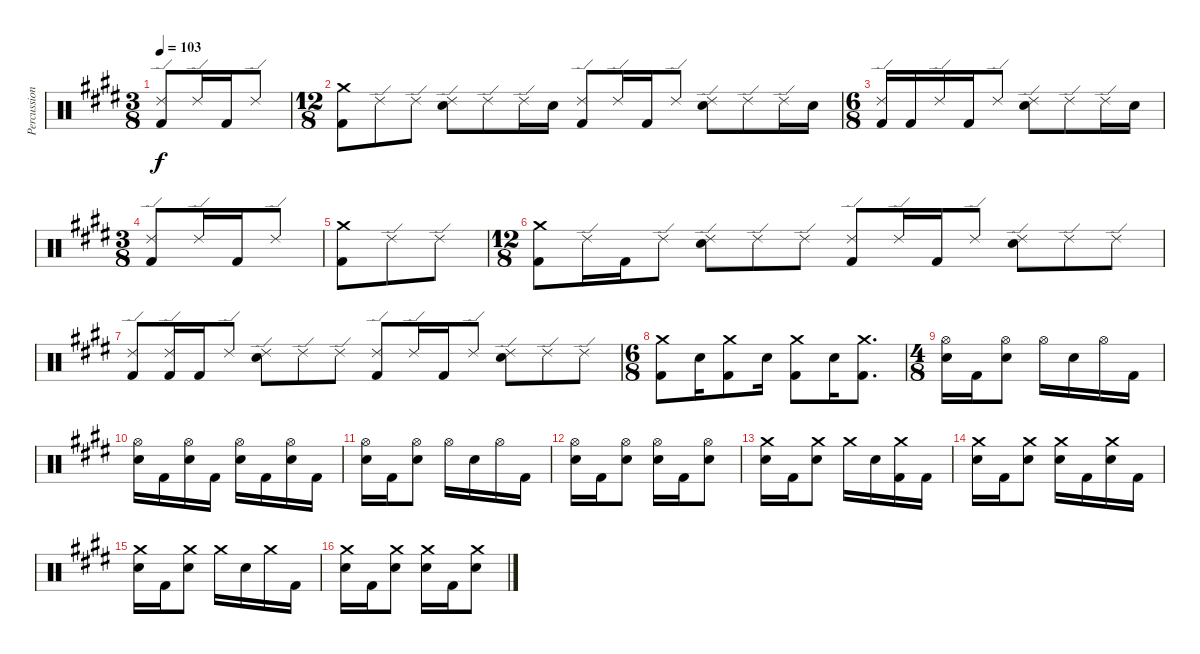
\track ("Percussion" "Percussion") {instrument percussion}
\staff {score}
\articulation defaults
\ts (3 8)
\tempo 103
\clef neutral
\ks c#minor
("Ride (edge) 2" "Kick (hit) 2").8{dy f} "Ride (edge) 2".16 "Kick (hit) 2".16 "Ride (edge) 2".8 |
\ts (12 8)
("Crash medium (hit)" "Kick (hit) 2").8 "Ride (edge) 2".8 "Ride (edge) 2".8 ("Ride (edge) 2" "Electric Snare (hit)").8 "Ride (edge) 2".8 "Ride (edge) 2".16 "Electric Snare (hit)".16 ("Ride (edge) 2" "Kick (hit) 2").8 "Ride (edge) 2".16 "Kick (hit) 2".16 "Ride (edge) 2".8 ("Ride (edge) 2" "Electric Snare (hit)").8 "Ride (edge) 2".8 "Ride (edge) 2".16 "Electric Snare (hit)".16 |
\ts (6 8)
\ks e
("Ride (edge) 2" "Kick (hit) 2").16 "Kick (hit) 2".16 "Ride (edge) 2".16 "Kick (hit) 2".16 "Ride (edge) 2".8 ("Ride (edge) 2" "Electric Snare (hit)").8 "Ride (edge) 2".8 "Ride (edge) 2".16 "Electric Snare (hit)".16 |
\ts (3 8)
\ks c#minor
("Ride (edge) 2" "Kick (hit) 2").8{beam merge} "Ride (edge) 2".16 "Kick (hit) 2".16{beam merge} "Ride (edge) 2".8 |
("Crash medium (hit)" "Kick (hit) 2").8 "Ride (edge) 2".8{beam merge} "Ride (edge) 2".8 |
\ts (12 8)
("Crash medium (hit)" "Kick (hit) 2").8 "Ride (edge) 2".16 "Kick (hit) 2".16 "Ride (edge) 2".8 ("Ride (edge) 2" "Electric Snare (hit)").8 "Ride (edge) 2".8 "Ride (edge) 2".8 ("Ride (edge) 2" "Kick (hit) 2").8 "Ride (edge) 2".16 "Kick (hit) 2".16 "Ride (edge) 2".8 ("Ride (edge) 2" "Electric Snare (hit)").8 "Ride (edge) 2".8 "Ride (edge) 2".8 |
\ks e
("Ride (edge) 2" "Kick (hit) 2").8 ("Ride (edge) 2" "Kick (hit) 2").16 "Kick (hit) 2".16 "Ride (edge) 2".8 ("Ride (edge) 2" "Electric Snare (hit)").8 "Ride (edge) 2".8 "Ride (edge) 2".8 ("Ride (edge) 2" "Kick (hit) 2").8 "Ride (edge) 2".16 "Kick (hit) 2".16 "Ride (edge) 2".8 ("Ride (edge) 2" "Electric Snare (hit)").8 "Ride (edge) 2".8 "Ride (edge) 2".8 |
\ts (6 8)
("Crash medium (hit)" "Kick (hit) 2").8 "Electric Snare (hit)".16 ("Crash medium (hit)" "Kick (hit) 2").8 "Electric Snare (hit)".16 ("Crash medium (hit)" "Kick (hit) 2").8 "Electric Snare (hit)".16 ("Crash medium (hit)" "Kick (hit) 2").8{d} |
\ts (4 8)
("Hi-Hat (open)" "Electric Snare (hit)").16 "Kick (hit) 2".16 ("Hi-Hat (open)" "Electric Snare (hit)").8 "Hi-Hat (open)".16 "Electric Snare (hit)".16 "Hi-Hat (open)".16 "Kick (hit) 2".16 |
\ks c#minor
("Hi-Hat (open)" "Electric Snare (hit)").16 "Kick (hit) 2".16 ("Hi-Hat (open)" "Electric Snare (hit)").16 "Kick (hit) 2".16 ("Hi-Hat (open)" "Electric Snare (hit)").16 "Kick (hit) 2".16 ("Hi-Hat (open)" "Electric Snare (hit)").16 "Kick (hit) 2".16 |
("Hi-Hat (open)" "Electric Snare (hit)").16 "Kick (hit) 2".16 ("Hi-Hat (open)" "Electric Snare (hit)").8 "Hi-Hat (open)".16 "Electric Snare (hit)".16 "Hi-Hat (open)".16 "Kick (hit) 2".16 |
("Hi-Hat (open)" "Electric Snare (hit)").16 "Kick (hit) 2".16 ("Hi-Hat (open)" "Electric Snare (hit)").8 ("Hi-Hat (open)" "Electric Snare (hit)").16 "Kick (hit) 2".16 ("Hi-Hat (open)" "Electric Snare (hit)").8 |
\ks e
("Crash medium (hit)" "Electric Snare (hit)").16 "Kick (hit) 2".16 ("Crash medium (hit)" "Electric Snare (hit)").8 "Crash medium (hit)".16 "Electric Snare (hit)".16 ("Crash medium (hit)" "Kick (hit) 2").16 "Kick (hit) 2".16 |
\ks c#minor
("Crash medium (hit)" "Electric Snare (hit)").16 "Kick (hit) 2".16 ("Crash medium (hit)" "Electric Snare (hit)").8 ("Crash medium (hit)" "Electric Snare (hit)").16 "Kick (hit) 2".16 ("Crash medium (hit)" "Electric Snare (hit)").16 "Kick (hit) 2".16 |
("Crash medium (hit)" "Electric Snare (hit)").16 "Kick (hit) 2".16 ("Crash medium (hit)" "Electric Snare (hit)").8 "Crash medium (hit)".16 "Electric Snare (hit)".16 "Crash medium (hit)".16 "Kick (hit) 2".16 |
("Crash medium (hit)" "Electric Snare (hit)").16 "Kick (hit) 2".16 ("Crash medium (hit)" "Electric Snare (hit)").8 ("Crash medium (hit)" "Electric Snare (hit)").16 "Kick (hit) 2".16 ("Crash medium (hit)" "Electric Snare (hit)").8
